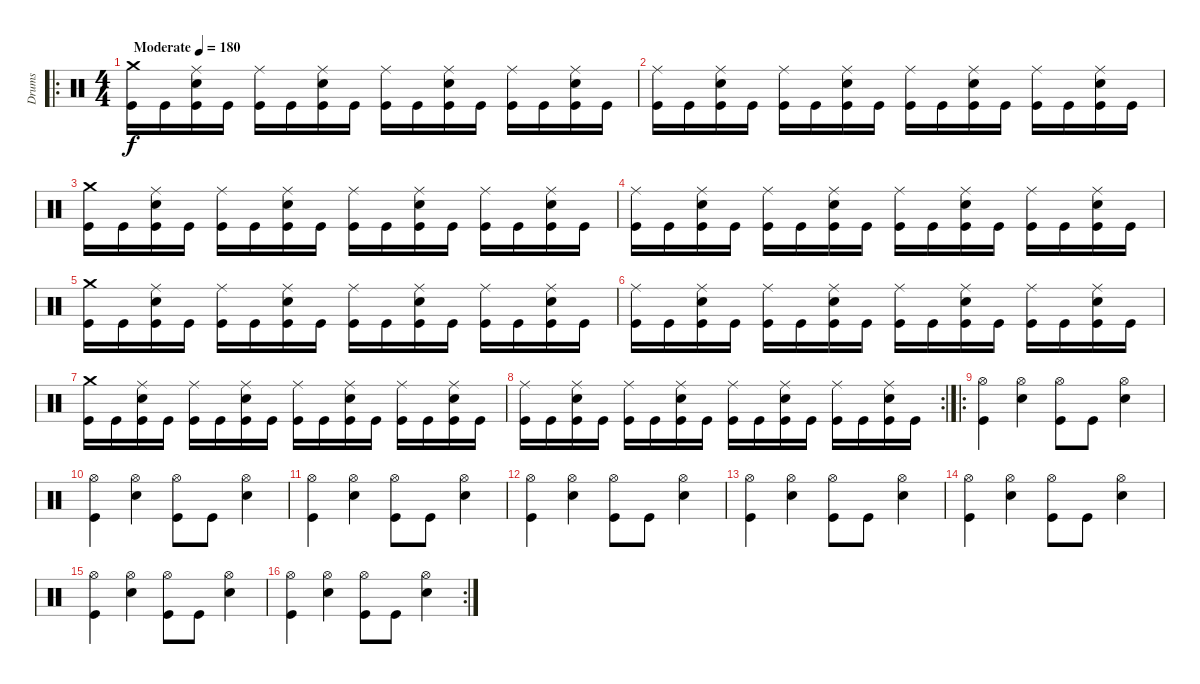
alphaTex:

\track ("Drums" "Drums") {instrument percussion}
\staff {score}
\articulation defaults
\ro
\ts (4 4)
\tempo (180 "Moderate")
\clef neutral
\ks c
("Crash medium (hit)" "Kick (hit)").16{dy f} "Kick (hit)".16 ("Ride (middle)" "Snare (hit) 2" "Kick (hit)").16 "Kick (hit)".16 ("Ride (middle)" "Kick (hit)").16 "Kick (hit)".16 ("Ride (middle)" "Snare (hit) 2" "Kick (hit)").16 "Kick (hit)".16 ("Ride (middle)" "Kick (hit)").16 "Kick (hit)".16 ("Ride (middle)" "Snare (hit) 2" "Kick (hit)").16 "Kick (hit)".16 ("Ride (middle)" "Kick (hit)").16 "Kick (hit)".16 ("Ride (middle)" "Snare (hit) 2" "Kick (hit)").16 "Kick (hit)".16 |
("Ride (middle)" "Kick (hit)").16 "Kick (hit)".16 ("Ride (middle)" "Snare (hit) 2" "Kick (hit)").16 "Kick (hit)".16 ("Ride (middle)" "Kick (hit)").16 "Kick (hit)".16 ("Ride (middle)" "Snare (hit) 2" "Kick (hit)").16 "Kick (hit)".16 ("Ride (middle)" "Kick (hit)").16 "Kick (hit)".16 ("Ride (middle)" "Snare (hit) 2" "Kick (hit)").16 "Kick (hit)".16 ("Ride (middle)" "Kick (hit)").16 "Kick (hit)".16 ("Ride (middle)" "Snare (hit) 2" "Kick (hit)").16 "Kick (hit)".16 |
("Crash medium (hit)" "Kick (hit)").16 "Kick (hit)".16 ("Ride (middle)" "Snare (hit) 2" "Kick (hit)").16 "Kick (hit)".16 ("Ride (middle)" "Kick (hit)").16 "Kick (hit)".16 ("Ride (middle)" "Snare (hit) 2" "Kick (hit)").16 "Kick (hit)".16 ("Ride (middle)" "Kick (hit)").16 "Kick (hit)".16 ("Ride (middle)" "Snare (hit) 2" "Kick (hit)").16 "Kick (hit)".16 ("Ride (middle)" "Kick (hit)").16 "Kick (hit)".16 ("Ride (middle)" "Snare (hit) 2" "Kick (hit)").16 "Kick (hit)".16 |
("Ride (middle)" "Kick (hit)").16 "Kick (hit)".16 ("Ride (middle)" "Snare (hit) 2" "Kick (hit)").16 "Kick (hit)".16 ("Ride (middle)" "Kick (hit)").16 "Kick (hit)".16 ("Ride (middle)" "Snare (hit) 2" "Kick (hit)").16 "Kick (hit)".16 ("Ride (middle)" "Kick (hit)").16 "Kick (hit)".16 ("Ride (middle)" "Snare (hit) 2" "Kick (hit)").16 "Kick (hit)".16 ("Ride (middle)" "Kick (hit)").16 "Kick (hit)".16 ("Ride (middle)" "Snare (hit) 2" "Kick (hit)").16 "Kick (hit)".16 |
("Crash medium (hit)" "Kick (hit)").16 "Kick (hit)".16 ("Ride (middle)" "Snare (hit) 2" "Kick (hit)").16 "Kick (hit)".16 ("Ride (middle)" "Kick (hit)").16 "Kick (hit)".16 ("Ride (middle)" "Snare (hit) 2" "Kick (hit)").16 "Kick (hit)".16 ("Ride (middle)" "Kick (hit)").16 "Kick (hit)".16 ("Ride (middle)" "Snare (hit) 2" "Kick (hit)").16 "Kick (hit)".16 ("Ride (middle)" "Kick (hit)").16 "Kick (hit)".16 ("Ride (middle)" "Snare (hit) 2" "Kick (hit)").16 "Kick (hit)".16 |
("Ride (middle)" "Kick (hit)").16 "Kick (hit)".16 ("Ride (middle)" "Snare (hit) 2" "Kick (hit)").16 "Kick (hit)".16 ("Ride (middle)" "Kick (hit)").16 "Kick (hit)".16 ("Ride (middle)" "Snare (hit) 2" "Kick (hit)").16 "Kick (hit)".16 ("Ride (middle)" "Kick (hit)").16 "Kick (hit)".16 ("Ride (middle)" "Snare (hit) 2" "Kick (hit)").16 "Kick (hit)".16 ("Ride (middle)" "Kick (hit)").16 "Kick (hit)".16 ("Ride (middle)" "Snare (hit) 2" "Kick (hit)").16 "Kick (hit)".16 |
("Crash medium (hit)" "Kick (hit)").16 "Kick (hit)".16 ("Ride (middle)" "Snare (hit) 2" "Kick (hit)").16 "Kick (hit)".16 ("Ride (middle)" "Kick (hit)").16 "Kick (hit)".16 ("Ride (middle)" "Snare (hit) 2" "Kick (hit)").16 "Kick (hit)".16 ("Ride (middle)" "Kick (hit)").16 "Kick (hit)".16 ("Ride (middle)" "Snare (hit) 2" "Kick (hit)").16 "Kick (hit)".16 ("Ride (middle)" "Kick (hit)").16 "Kick (hit)".16 ("Ride (middle)" "Snare (hit) 2" "Kick (hit)").16 "Kick (hit)".16 |
\rc 2
("Ride (middle)" "Kick (hit)").16 "Kick (hit)".16 ("Ride (middle)" "Snare (hit) 2" "Kick (hit)").16 "Kick (hit)".16 ("Ride (middle)" "Kick (hit)").16 "Kick (hit)".16 ("Ride (middle)" "Snare (hit) 2" "Kick (hit)").16 "Kick (hit)".16 ("Ride (middle)" "Kick (hit)").16 "Kick (hit)".16 ("Ride (middle)" "Snare (hit) 2" "Kick (hit)").16 "Kick (hit)".16 ("Ride (middle)" "Kick (hit)").16 "Kick (hit)".16 ("Ride (middle)" "Snare (hit) 2" "Kick (hit)").16 "Kick (hit)".16 |
\ro
("Hi-Hat (open)" "Kick (hit)").4 ("Hi-Hat (open)" "Snare (hit) 2").4 ("Hi-Hat (open)" "Kick (hit)").8 "Kick (hit)".8 ("Hi-Hat (open)" "Snare (hit) 2").4 |
("Hi-Hat (open)" "Kick (hit)").4 ("Hi-Hat (open)" "Snare (hit) 2").4 ("Hi-Hat (open)" "Kick (hit)").8 "Kick (hit)".8 ("Hi-Hat (open)" "Snare (hit) 2").4 |
("Hi-Hat (open)" "Kick (hit)").4 ("Hi-Hat (open)" "Snare (hit) 2").4 ("Hi-Hat (open)" "Kick (hit)").8 "Kick (hit)".8 ("Hi-Hat (open)" "Snare (hit) 2").4 |
("Hi-Hat (open)" "Kick (hit)").4 ("Hi-Hat (open)" "Snare (hit) 2").4 ("Hi-Hat (open)" "Kick (hit)").8 "Kick (hit)".8 ("Hi-Hat (open)" "Snare (hit) 2").4 |
("Hi-Hat (open)" "Kick (hit)").4 ("Hi-Hat (open)" "Snare (hit) 2").4 ("Hi-Hat (open)" "Kick (hit)").8 "Kick (hit)".8 ("Hi-Hat (open)" "Snare (hit) 2").4 |
("Hi-Hat (open)" "Kick (hit)").4 ("Hi-Hat (open)" "Snare (hit) 2").4 ("Hi-Hat (open)" "Kick (hit)").8 "Kick (hit)".8 ("Hi-Hat (open)" "Snare (hit) 2").4 |
("Hi-Hat (open)" "Kick (hit)").4 ("Hi-Hat (open)" "Snare (hit) 2").4 ("Hi-Hat (open)" "Kick (hit)").8 "Kick (hit)".8 ("Hi-Hat (open)" "Snare (hit) 2").4 |
\rc 2
("Hi-Hat (open)" "Kick (hit)").4 ("Hi-Hat (open)" "Snare (hit) 2").4 ("Hi-Hat (open)" "Kick (hit)").8 "Kick (hit)".8 ("Hi-Hat (open)" "Snare (hit) 2").4
